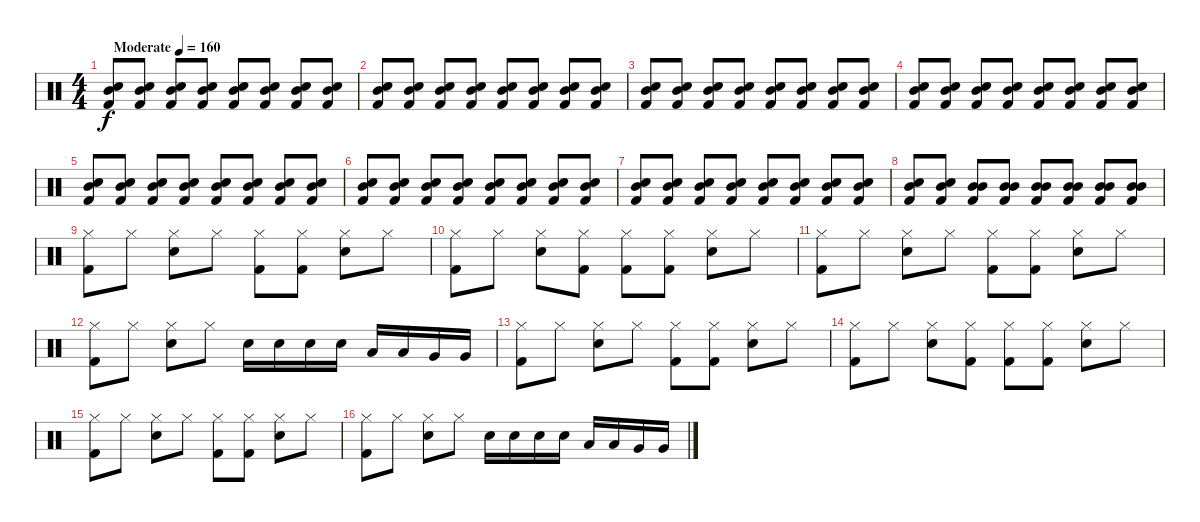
\track "" {solo instrument percussion}
\staff {score}
\articulation defaults
\ts (4 4)
\tempo (160 "Moderate")
\clef neutral
\ks c
("Kick (hit) 2" "Mid Tom (hit)" "Electric Snare (hit)").8{dy f volume 1} ("Kick (hit) 2" "Mid Tom (hit)" "Electric Snare (hit)").8 ("Kick (hit) 2" "Mid Tom (hit)" "Electric Snare (hit)").8 ("Kick (hit) 2" "Mid Tom (hit)" "Electric Snare (hit)").8 ("Kick (hit) 2" "Mid Tom (hit)" "Electric Snare (hit)").8{volume 3} ("Kick (hit) 2" "Mid Tom (hit)" "Electric Snare (hit)").8 ("Kick (hit) 2" "Mid Tom (hit)" "Electric Snare (hit)").8 ("Kick (hit) 2" "Mid Tom (hit)" "Electric Snare (hit)").8 |
("Kick (hit) 2" "Mid Tom (hit)" "Electric Snare (hit)").8{volume 6} ("Kick (hit) 2" "Mid Tom (hit)" "Electric Snare (hit)").8 ("Kick (hit) 2" "Mid Tom (hit)" "Electric Snare (hit)").8 ("Kick (hit) 2" "Mid Tom (hit)" "Electric Snare (hit)").8 ("Kick (hit) 2" "Mid Tom (hit)" "Electric Snare (hit)").8 ("Kick (hit) 2" "Mid Tom (hit)" "Electric Snare (hit)").8 ("Kick (hit) 2" "Mid Tom (hit)" "Electric Snare (hit)").8 ("Kick (hit) 2" "Mid Tom (hit)" "Electric Snare (hit)").8 |
("Kick (hit) 2" "Mid Tom (hit)" "Electric Snare (hit)").8 ("Kick (hit) 2" "Mid Tom (hit)" "Electric Snare (hit)").8 ("Kick (hit) 2" "Mid Tom (hit)" "Electric Snare (hit)").8 ("Kick (hit) 2" "Mid Tom (hit)" "Electric Snare (hit)").8 ("Kick (hit) 2" "Mid Tom (hit)" "Electric Snare (hit)").8 ("Kick (hit) 2" "Mid Tom (hit)" "Electric Snare (hit)").8 ("Kick (hit) 2" "Mid Tom (hit)" "Electric Snare (hit)").8 ("Kick (hit) 2" "Mid Tom (hit)" "Electric Snare (hit)").8 |
("Kick (hit) 2" "Mid Tom (hit)" "Electric Snare (hit)").8{volume 7} ("Kick (hit) 2" "Mid Tom (hit)" "Electric Snare (hit)").8 ("Kick (hit) 2" "Mid Tom (hit)" "Electric Snare (hit)").8 ("Kick (hit) 2" "Mid Tom (hit)" "Electric Snare (hit)").8 ("Kick (hit) 2" "Mid Tom (hit)" "Electric Snare (hit)").8 ("Kick (hit) 2" "Mid Tom (hit)" "Electric Snare (hit)").8 ("Kick (hit) 2" "Mid Tom (hit)" "Electric Snare (hit)").8 ("Kick (hit) 2" "Mid Tom (hit)" "Electric Snare (hit)").8 |
("Kick (hit) 2" "Mid Tom (hit)" "Electric Snare (hit)").8 ("Kick (hit) 2" "Mid Tom (hit)" "Electric Snare (hit)").8 ("Kick (hit) 2" "Mid Tom (hit)" "Electric Snare (hit)").8 ("Kick (hit) 2" "Mid Tom (hit)" "Electric Snare (hit)").8 ("Kick (hit) 2" "Mid Tom (hit)" "Electric Snare (hit)").8 ("Kick (hit) 2" "Mid Tom (hit)" "Electric Snare (hit)").8 ("Kick (hit) 2" "Mid Tom (hit)" "Electric Snare (hit)").8 ("Kick (hit) 2" "Mid Tom (hit)" "Electric Snare (hit)").8 |
("Kick (hit) 2" "Mid Tom (hit)" "Electric Snare (hit)").8 ("Kick (hit) 2" "Mid Tom (hit)" "Electric Snare (hit)").8 ("Kick (hit) 2" "Mid Tom (hit)" "Electric Snare (hit)").8 ("Kick (hit) 2" "Mid Tom (hit)" "Electric Snare (hit)").8 ("Kick (hit) 2" "Mid Tom (hit)" "Electric Snare (hit)").8 ("Kick (hit) 2" "Mid Tom (hit)" "Electric Snare (hit)").8 ("Kick (hit) 2" "Mid Tom (hit)" "Electric Snare (hit)").8 ("Kick (hit) 2" "Mid Tom (hit)" "Electric Snare (hit)").8 |
("Kick (hit) 2" "Mid Tom (hit)" "Electric Snare (hit)").8 ("Kick (hit) 2" "Mid Tom (hit)" "Electric Snare (hit)").8 ("Kick (hit) 2" "Mid Tom (hit)" "Electric Snare (hit)").8 ("Kick (hit) 2" "Mid Tom (hit)" "Electric Snare (hit)").8 ("Kick (hit) 2" "Mid Tom (hit)" "Electric Snare (hit)").8 ("Kick (hit) 2" "Mid Tom (hit)" "Electric Snare (hit)").8 ("Kick (hit) 2" "Mid Tom (hit)" "Electric Snare (hit)").8 ("Kick (hit) 2" "Mid Tom (hit)" "Electric Snare (hit)").8 |
("Kick (hit) 2" "Mid Tom (hit)" "Electric Snare (hit)").8{volume 10} ("Kick (hit) 2" "Mid Tom (hit)" "Electric Snare (hit)").8 ("Kick (hit) 2" "Mid Tom (hit)" "Mid Tom (hit)").8 ("Kick (hit) 2" "Mid Tom (hit)" "Mid Tom (hit)").8 ("Kick (hit) 2" "Mid Tom (hit)" "Mid Tom (hit)").8 ("Kick (hit) 2" "Mid Tom (hit)" "Mid Tom (hit)").8 ("Kick (hit) 2" "Mid Tom (hit)" "Mid Tom (hit)").8 ("Kick (hit) 2" "Mid Tom (hit)" "Mid Tom (hit)").8 |
("Kick (hit) 2" "Hi-Hat (closed)").8 "Hi-Hat (closed)".8 ("Electric Snare (hit)" "Hi-Hat (closed)").8 "Hi-Hat (closed)".8 ("Kick (hit) 2" "Hi-Hat (closed)").8 ("Kick (hit) 2" "Hi-Hat (closed)").8 ("Electric Snare (hit)" "Hi-Hat (closed)").8 "Hi-Hat (closed)".8 |
("Kick (hit) 2" "Hi-Hat (closed)").8 "Hi-Hat (closed)".8 ("Electric Snare (hit)" "Hi-Hat (closed)").8 ("Kick (hit) 2" "Hi-Hat (closed)").8 ("Kick (hit) 2" "Hi-Hat (closed)").8 ("Kick (hit) 2" "Hi-Hat (closed)").8 ("Electric Snare (hit)" "Hi-Hat (closed)").8 "Hi-Hat (closed)".8 |
("Kick (hit) 2" "Hi-Hat (closed)").8 "Hi-Hat (closed)".8 ("Electric Snare (hit)" "Hi-Hat (closed)").8 "Hi-Hat (closed)".8 ("Kick (hit) 2" "Hi-Hat (closed)").8 ("Kick (hit) 2" "Hi-Hat (closed)").8 ("Electric Snare (hit)" "Hi-Hat (closed)").8 "Hi-Hat (closed)".8 |
("Kick (hit) 2" "Hi-Hat (closed)").8 "Hi-Hat (closed)".8 ("Electric Snare (hit)" "Hi-Hat (closed)").8 "Hi-Hat (closed)".8 "Electric Snare (hit)".16 "Electric Snare (hit)".16 "Electric Snare (hit)".16 "Electric Snare (hit)".16 "Low Floor Tom (hit)".16 "Low Floor Tom (hit)".16 "Very Low Tom (hit)".16 "Very Low Tom (hit)".16 |
("Kick (hit) 2" "Hi-Hat (closed)").8 "Hi-Hat (closed)".8 ("Electric Snare (hit)" "Hi-Hat (closed)").8 "Hi-Hat (closed)".8 ("Kick (hit) 2" "Hi-Hat (closed)").8 ("Kick (hit) 2" "Hi-Hat (closed)").8 ("Electric Snare (hit)" "Hi-Hat (closed)").8 "Hi-Hat (closed)".8 |
("Kick (hit) 2" "Hi-Hat (closed)").8 "Hi-Hat (closed)".8 ("Electric Snare (hit)" "Hi-Hat (closed)").8 ("Kick (hit) 2" "Hi-Hat (closed)").8 ("Kick (hit) 2" "Hi-Hat (closed)").8 ("Kick (hit) 2" "Hi-Hat (closed)").8 ("Electric Snare (hit)" "Hi-Hat (closed)").8 "Hi-Hat (closed)".8 |
("Kick (hit) 2" "Hi-Hat (closed)").8 "Hi-Hat (closed)".8 ("Electric Snare (hit)" "Hi-Hat (closed)").8 "Hi-Hat (closed)".8 ("Kick (hit) 2" "Hi-Hat (closed)").8 ("Kick (hit) 2" "Hi-Hat (closed)").8 ("Electric Snare (hit)" "Hi-Hat (closed)").8 "Hi-Hat (closed)".8 |
("Kick (hit) 2" "Hi-Hat (closed)").8 "Hi-Hat (closed)".8 ("Electric Snare (hit)" "Hi-Hat (closed)").8 "Hi-Hat (closed)".8 "Electric Snare (hit)".16 "Electric Snare (hit)".16 "Electric Snare (hit)".16 "Electric Snare (hit)".16 "Low Floor Tom (hit)".16 "Low Floor Tom (hit)".16 "Very Low Tom (hit)".16 "Very Low Tom (hit)".16
